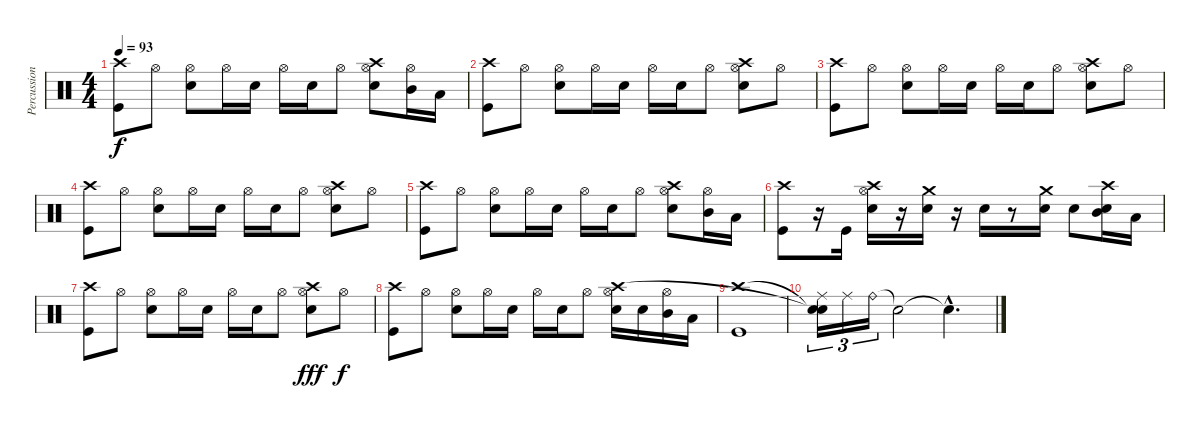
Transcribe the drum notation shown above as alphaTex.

\track ("Percussions" "Percussion") {instrument percussion}
\staff {score}
\articulation defaults
\ts (4 4)
\tempo 93
\clef neutral
\ks c
("Crash high (hit)" "Kick (hit)").8{dy f} "Hi-Hat (open)".8 ("Hi-Hat (open)" "Snare (hit) 2").8 "Hi-Hat (open)".16 "Snare (hit) 2".16 "Hi-Hat (open)".16 "Snare (hit) 2".16 "Hi-Hat (open)".8 ("Hi-Hat (open)" "Crash high (hit)" "Snare (hit) 2").8 ("Hi-Hat (open)" "Mid Tom (hit)").16 "Low Tom (hit)".16 |
("Crash high (hit)" "Kick (hit)").8 "Hi-Hat (open)".8 ("Hi-Hat (open)" "Snare (hit) 2").8 "Hi-Hat (open)".16 "Snare (hit) 2".16 "Hi-Hat (open)".16 "Snare (hit) 2".16 "Hi-Hat (open)".8 ("Hi-Hat (open)" "Crash high (hit)" "Snare (hit) 2").8 "Hi-Hat (open)".8 |
("Crash high (hit)" "Kick (hit)").8 "Hi-Hat (open)".8 ("Hi-Hat (open)" "Snare (hit) 2").8 "Hi-Hat (open)".16 "Snare (hit) 2".16 "Hi-Hat (open)".16 "Snare (hit) 2".16 "Hi-Hat (open)".8 ("Hi-Hat (open)" "Crash high (hit)" "Snare (hit) 2").8 "Hi-Hat (open)".8 |
("Crash high (hit)" "Kick (hit)").8 "Hi-Hat (open)".8 ("Hi-Hat (open)" "Snare (hit) 2").8 "Hi-Hat (open)".16 "Snare (hit) 2".16 "Hi-Hat (open)".16 "Snare (hit) 2".16 "Hi-Hat (open)".8 ("Hi-Hat (open)" "Crash high (hit)" "Snare (hit) 2").8 "Hi-Hat (open)".8 |
("Crash high (hit)" "Kick (hit)").8 "Hi-Hat (open)".8 ("Hi-Hat (open)" "Snare (hit) 2").8 "Hi-Hat (open)".16 "Snare (hit) 2".16 "Hi-Hat (open)".16 "Snare (hit) 2".16 "Hi-Hat (open)".8 ("Hi-Hat (open)" "Crash high (hit)" "Snare (hit) 2").8 ("Hi-Hat (open)" "Mid Tom (hit)").16 "Low Tom (hit)".16 |
("Crash high (hit)" "Kick (hit)").8 r.16 "Kick (hit)".16 ("Hi-Hat (open)" "Crash high (hit)" "Snare (hit) 2").16 r.16 ("Crash medium (hit)" "Snare (hit) 2").16 r.16 "Snare (hit) 2".16 r.8 ("Crash medium (hit)" "Snare (hit) 2").16 "Snare (hit) 2".8 ("Mid Tom (hit)" "Crash high (hit)" "Snare (hit) 2").16 "Low Tom (hit)".16 |
("Crash high (hit)" "Kick (hit)").8 "Hi-Hat (open)".8 ("Hi-Hat (open)" "Snare (hit) 2").8 "Hi-Hat (open)".16 "Snare (hit) 2".16 "Hi-Hat (open)".16 "Snare (hit) 2".16 "Hi-Hat (open)".8 ("Hi-Hat (open)" "Crash high (hit)" "Snare (hit) 2").8{dy fff} "Hi-Hat (open)".8{dy f} |
("Crash high (hit)" "Kick (hit)").8 "Hi-Hat (open)".8 ("Hi-Hat (open)" "Snare (hit) 2").8 "Hi-Hat (open)".16 "Snare (hit) 2".16 "Hi-Hat (open)".16 "Snare (hit) 2".16 "Hi-Hat (open)".8 ("Hi-Hat (open)" "Snare (hit) 2" "Crash high (hit)").16 "Snare (hit) 2".16 ("Hi-Hat (open)" "Mid Tom (hit)").16 "Low Tom (hit)".16 |
("Crash high (hit)" "Kick (hit)").1 |
("Snare (hit)"{t} "Ride (middle)" "Snare (hit)"{t}).16{tu (3 2)} "Ride (middle)".16{tu (3 2)} "Ride (bell)".16{tu (3 2)} "Snare (hit)"{t}.2 "Snare (hit)"{hac t}.4{d}
